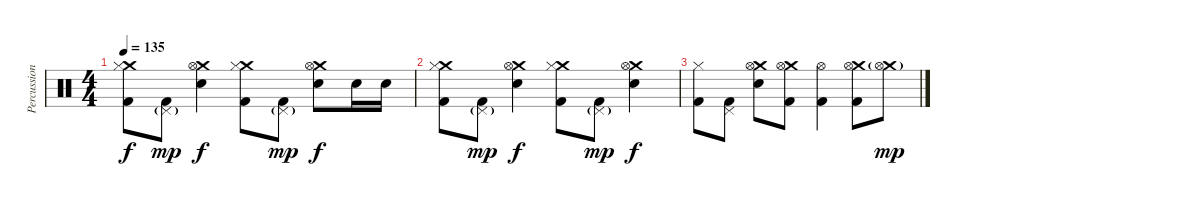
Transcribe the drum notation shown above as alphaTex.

\track ("Percussion" "Percussion") {instrument percussion}
\staff {score}
\articulation defaults
\ts (4 4)
\tempo 135
\clef neutral
\ks c
("Crash medium (hit)" "Hi-Hat (closed)" "Kick (hit) 2").8{dy f} ("Pedal Hi-Hat (hit)"{g} "Kick (hit) 2").8{dy mp} ("Crash medium (hit)" "Hi-Hat (open)" "Electric Snare (hit)").4{dy f} ("Crash medium (hit)" "Hi-Hat (closed)" "Kick (hit) 2").8 ("Pedal Hi-Hat (hit)"{g} "Kick (hit) 2").8{dy mp} ("Crash medium (hit)" "Hi-Hat (open)" "Electric Snare (hit)").8{dy f} "Electric Snare (hit)".16 "Electric Snare (hit)".16 |
("Crash medium (hit)" "Hi-Hat (closed)" "Kick (hit) 2").8 ("Pedal Hi-Hat (hit)"{g} "Kick (hit) 2").8{dy mp} ("Crash medium (hit)" "Hi-Hat (open)" "Electric Snare (hit)").4{dy f} ("Crash medium (hit)" "Hi-Hat (closed)" "Kick (hit) 2").8 ("Pedal Hi-Hat (hit)"{g} "Kick (hit) 2").8{dy mp} ("Crash medium (hit)" "Hi-Hat (open)" "Electric Snare (hit)").4{dy f} |
("Hi-Hat (closed)" "Kick (hit) 2").8 ("Pedal Hi-Hat (hit)" "Kick (hit) 2").8 ("Crash medium (hit)" "Hi-Hat (open)" "Electric Snare (hit)").8 ("Crash medium (hit)" "Hi-Hat (open)" "Kick (hit) 2").8 ("Hi-Hat (open)" "Kick (hit) 2").4 ("Crash medium (hit)" "Hi-Hat (open)" "Kick (hit) 2").8 ("Crash medium (hit)"{g} "Hi-Hat (open)").8{dy mp}
